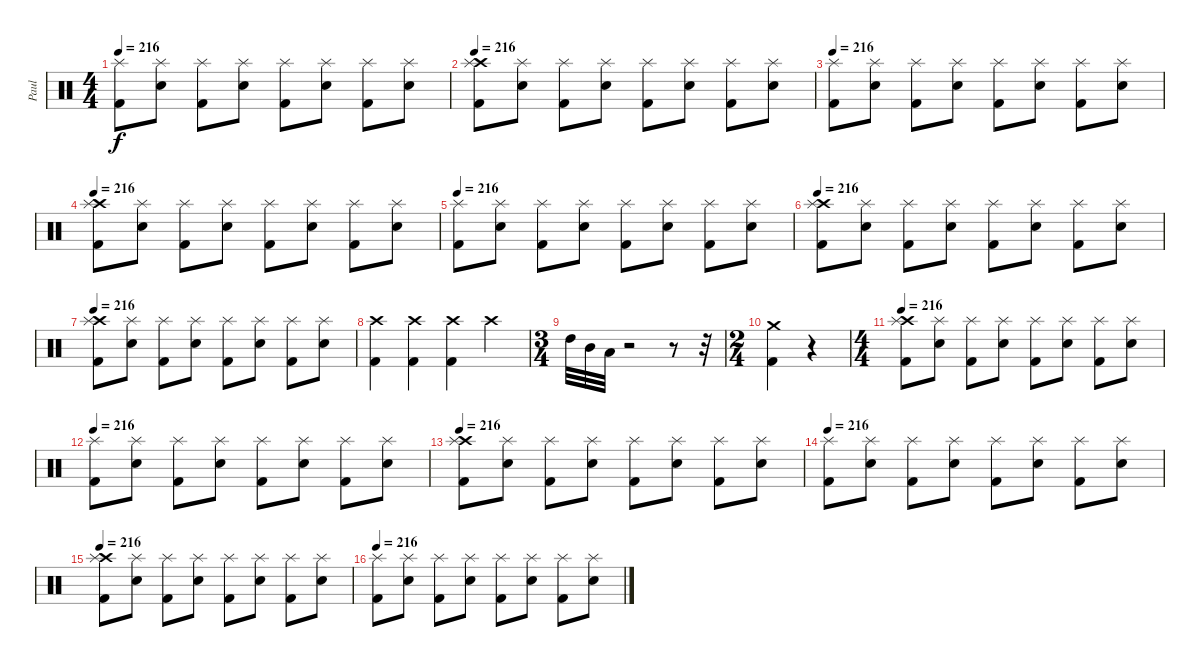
\track ("Paul" "Paul") {instrument percussion}
\staff {score}
\articulation defaults
\ts (4 4)
\tempo 216
\clef neutral
\ks c
("Splash (hit)" "Kick (hit) 2").8{dy f} ("Splash (hit)" "Electric Snare (hit)").8 ("Splash (hit)" "Kick (hit) 2").8 ("Splash (hit)" "Electric Snare (hit)").8 ("Splash (hit)" "Kick (hit) 2").8 ("Splash (hit)" "Electric Snare (hit)").8 ("Splash (hit)" "Kick (hit) 2").8 ("Splash (hit)" "Electric Snare (hit)").8 |
\tempo 216
("Crash high (hit)" "Splash (hit)" "Kick (hit) 2").8 ("Splash (hit)" "Electric Snare (hit)").8 ("Splash (hit)" "Kick (hit) 2").8 ("Splash (hit)" "Electric Snare (hit)").8 ("Splash (hit)" "Kick (hit) 2").8 ("Splash (hit)" "Electric Snare (hit)").8 ("Splash (hit)" "Kick (hit) 2").8 ("Splash (hit)" "Electric Snare (hit)").8 |
\tempo 216
("Splash (hit)" "Kick (hit) 2").8 ("Splash (hit)" "Electric Snare (hit)").8 ("Splash (hit)" "Kick (hit) 2").8 ("Splash (hit)" "Electric Snare (hit)").8 ("Splash (hit)" "Kick (hit) 2").8 ("Splash (hit)" "Electric Snare (hit)").8 ("Splash (hit)" "Kick (hit) 2").8 ("Splash (hit)" "Electric Snare (hit)").8 |
\tempo 216
("Crash high (hit)" "Splash (hit)" "Kick (hit) 2").8 ("Splash (hit)" "Electric Snare (hit)").8 ("Splash (hit)" "Kick (hit) 2").8 ("Splash (hit)" "Electric Snare (hit)").8 ("Splash (hit)" "Kick (hit) 2").8 ("Splash (hit)" "Electric Snare (hit)").8 ("Splash (hit)" "Kick (hit) 2").8 ("Splash (hit)" "Electric Snare (hit)").8 |
\tempo 216
("Splash (hit)" "Kick (hit) 2").8 ("Splash (hit)" "Electric Snare (hit)").8 ("Splash (hit)" "Kick (hit) 2").8 ("Splash (hit)" "Electric Snare (hit)").8 ("Splash (hit)" "Kick (hit) 2").8 ("Splash (hit)" "Electric Snare (hit)").8 ("Splash (hit)" "Kick (hit) 2").8 ("Splash (hit)" "Electric Snare (hit)").8 |
\tempo 216
("Crash high (hit)" "Splash (hit)" "Kick (hit) 2").8 ("Splash (hit)" "Electric Snare (hit)").8 ("Splash (hit)" "Kick (hit) 2").8 ("Splash (hit)" "Electric Snare (hit)").8 ("Splash (hit)" "Kick (hit) 2").8 ("Splash (hit)" "Electric Snare (hit)").8 ("Splash (hit)" "Kick (hit) 2").8 ("Splash (hit)" "Electric Snare (hit)").8 |
\tempo 216
("Crash high (hit)" "Splash (hit)" "Kick (hit) 2").8 ("Splash (hit)" "Electric Snare (hit)").8 ("Splash (hit)" "Kick (hit) 2").8 ("Splash (hit)" "Electric Snare (hit)").8 ("Splash (hit)" "Kick (hit) 2").8 ("Splash (hit)" "Electric Snare (hit)").8 ("Splash (hit)" "Kick (hit) 2").8 ("Splash (hit)" "Electric Snare (hit)").8 |
("Crash high (hit)" "Kick (hit) 2").4 ("Crash high (hit)" "Kick (hit) 2").4 ("Crash high (hit)" "Kick (hit) 2").4 "Crash high (hit)".4 |
\ts (3 4)
"High Tom (hit)".32 "Mid Tom (hit)".32 "Low Tom (hit)".32 r.2 r.8 r.32 |
\ts (2 4)
("Crash medium (hit)" "Kick (hit) 2").4 r.4 |
\ts (4 4)
\tempo 216
("Crash high (hit)" "Splash (hit)" "Kick (hit) 2").8 ("Splash (hit)" "Electric Snare (hit)").8 ("Splash (hit)" "Kick (hit) 2").8 ("Splash (hit)" "Electric Snare (hit)").8 ("Splash (hit)" "Kick (hit) 2").8 ("Splash (hit)" "Electric Snare (hit)").8 ("Splash (hit)" "Kick (hit) 2").8 ("Splash (hit)" "Electric Snare (hit)").8 |
\tempo 216
("Splash (hit)" "Kick (hit) 2").8 ("Splash (hit)" "Electric Snare (hit)").8 ("Splash (hit)" "Kick (hit) 2").8 ("Splash (hit)" "Electric Snare (hit)").8 ("Splash (hit)" "Kick (hit) 2").8 ("Splash (hit)" "Electric Snare (hit)").8 ("Splash (hit)" "Kick (hit) 2").8 ("Splash (hit)" "Electric Snare (hit)").8 |
\tempo 216
("Crash high (hit)" "Splash (hit)" "Kick (hit) 2").8 ("Splash (hit)" "Electric Snare (hit)").8 ("Splash (hit)" "Kick (hit) 2").8 ("Splash (hit)" "Electric Snare (hit)").8 ("Splash (hit)" "Kick (hit) 2").8 ("Splash (hit)" "Electric Snare (hit)").8 ("Splash (hit)" "Kick (hit) 2").8 ("Splash (hit)" "Electric Snare (hit)").8 |
\tempo 216
("Splash (hit)" "Kick (hit) 2").8 ("Splash (hit)" "Electric Snare (hit)").8 ("Splash (hit)" "Kick (hit) 2").8 ("Splash (hit)" "Electric Snare (hit)").8 ("Splash (hit)" "Kick (hit) 2").8 ("Splash (hit)" "Electric Snare (hit)").8 ("Splash (hit)" "Kick (hit) 2").8 ("Splash (hit)" "Electric Snare (hit)").8 |
\tempo 216
("Crash high (hit)" "Splash (hit)" "Kick (hit) 2").8 ("Splash (hit)" "Electric Snare (hit)").8 ("Splash (hit)" "Kick (hit) 2").8 ("Splash (hit)" "Electric Snare (hit)").8 ("Splash (hit)" "Kick (hit) 2").8 ("Splash (hit)" "Electric Snare (hit)").8 ("Splash (hit)" "Kick (hit) 2").8 ("Splash (hit)" "Electric Snare (hit)").8 |
\tempo 216
("Splash (hit)" "Kick (hit) 2").8 ("Splash (hit)" "Electric Snare (hit)").8 ("Splash (hit)" "Kick (hit) 2").8 ("Splash (hit)" "Electric Snare (hit)").8 ("Splash (hit)" "Kick (hit) 2").8 ("Splash (hit)" "Electric Snare (hit)").8 ("Splash (hit)" "Kick (hit) 2").8 ("Splash (hit)" "Electric Snare (hit)").8
